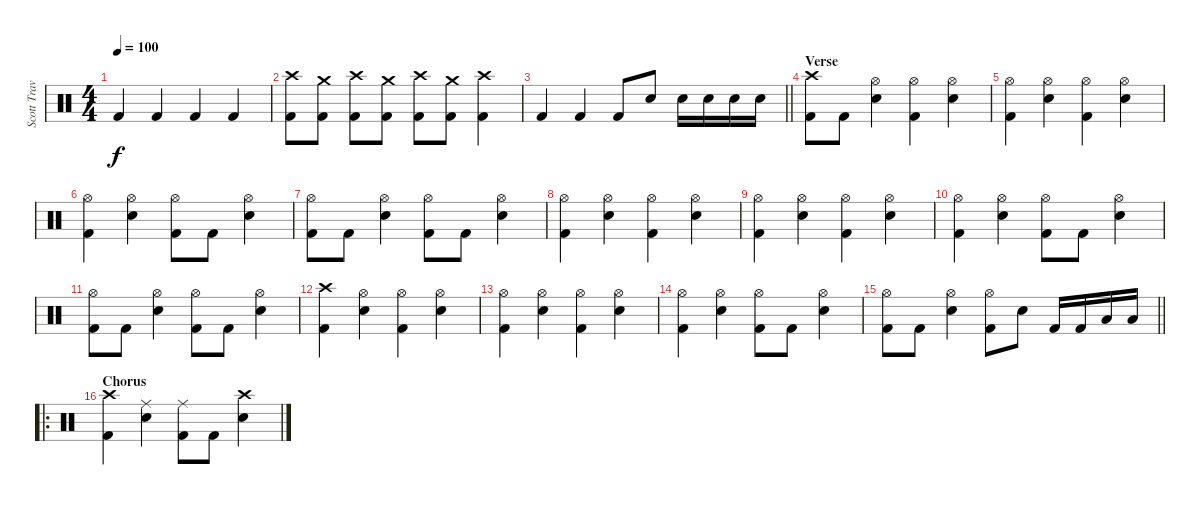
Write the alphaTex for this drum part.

\track ("Scott Travis" "Scott Trav") {instrument percussion}
\staff {score}
\articulation defaults
\ts (4 4)
\tempo 100
\clef neutral
\ks c "Kick (hit) 2".4{dy f} "Kick (hit) 2".4 "Kick (hit) 2".4 "Kick (hit) 2".4
|
("Crash high (hit)" "Kick (hit) 2").8 ("Crash medium (hit)" "Kick (hit) 2").8 ("Crash high (hit)" "Kick (hit) 2").8 ("Crash medium (hit)" "Kick (hit) 2").8 ("Crash high (hit)" "Kick (hit) 2").8 ("Crash medium (hit)" "Kick (hit) 2").8 ("Crash high (hit)" "Kick (hit) 2").4 |
\barLineRight lightlight "Kick (hit) 2".4 "Kick (hit) 2".4 "Kick (hit) 2".8 "Snare (hit) 2".8 "Snare (hit) 2".16 "Snare (hit) 2".16 "Snare (hit) 2".16 "Snare (hit) 2".16
|
\section ("" "Verse")
("Crash high (hit)" "Kick (hit) 2").8 "Kick (hit) 2".8 ("Hi-Hat (open)" "Snare (hit) 2").4 ("Hi-Hat (open)" "Kick (hit) 2").4 ("Hi-Hat (open)" "Snare (hit) 2").4 |
("Hi-Hat (open)" "Kick (hit) 2").4 ("Hi-Hat (open)" "Snare (hit) 2").4 ("Hi-Hat (open)" "Kick (hit) 2").4 ("Hi-Hat (open)" "Snare (hit) 2").4 |
("Hi-Hat (open)" "Kick (hit) 2").4 ("Hi-Hat (open)" "Snare (hit) 2").4 ("Hi-Hat (open)" "Kick (hit) 2").8 "Kick (hit) 2".8 ("Hi-Hat (open)" "Snare (hit) 2").4 |
("Hi-Hat (open)" "Kick (hit) 2").8 "Kick (hit) 2".8 ("Hi-Hat (open)" "Snare (hit) 2").4 ("Hi-Hat (open)" "Kick (hit) 2").8 "Kick (hit) 2".8 ("Hi-Hat (open)" "Snare (hit) 2").4 |
("Hi-Hat (open)" "Kick (hit) 2").4 ("Hi-Hat (open)" "Snare (hit) 2").4 ("Hi-Hat (open)" "Kick (hit) 2").4 ("Hi-Hat (open)" "Snare (hit) 2").4 |
("Hi-Hat (open)" "Kick (hit) 2").4 ("Hi-Hat (open)" "Snare (hit) 2").4 ("Hi-Hat (open)" "Kick (hit) 2").4 ("Hi-Hat (open)" "Snare (hit) 2").4 |
("Hi-Hat (open)" "Kick (hit) 2").4 ("Hi-Hat (open)" "Snare (hit) 2").4 ("Hi-Hat (open)" "Kick (hit) 2").8 "Kick (hit) 2".8 ("Hi-Hat (open)" "Snare (hit) 2").4 |
("Hi-Hat (open)" "Kick (hit) 2").8 "Kick (hit) 2".8 ("Hi-Hat (open)" "Snare (hit) 2").4 ("Hi-Hat (open)" "Kick (hit) 2").8 "Kick (hit) 2".8 ("Hi-Hat (open)" "Snare (hit) 2").4 |
("Crash high (hit)" "Kick (hit) 2").4 ("Hi-Hat (open)" "Snare (hit) 2").4 ("Hi-Hat (open)" "Kick (hit) 2").4 ("Hi-Hat (open)" "Snare (hit) 2").4 |
("Hi-Hat (open)" "Kick (hit) 2").4 ("Hi-Hat (open)" "Snare (hit) 2").4 ("Hi-Hat (open)" "Kick (hit) 2").4 ("Hi-Hat (open)" "Snare (hit) 2").4 |
("Hi-Hat (open)" "Kick (hit) 2").4 ("Hi-Hat (open)" "Snare (hit) 2").4 ("Hi-Hat (open)" "Kick (hit) 2").8 "Kick (hit) 2".8 ("Hi-Hat (open)" "Snare (hit) 2").4 |
\barLineRight lightlight
("Hi-Hat (open)" "Kick (hit) 2").8 "Kick (hit) 2".8 ("Hi-Hat (open)" "Snare (hit) 2").4 ("Hi-Hat (open)" "Kick (hit) 2").8 "Snare (hit) 2".8 "Kick (hit) 2".16 "Kick (hit) 2".16 "Low Floor Tom (hit)".16 "Low Floor Tom (hit)".16 |
\ro
\section ("" "Chorus")
("Crash high (hit)" "Kick (hit) 2").4 ("Ride (middle)" "Snare (hit) 2").4 ("Ride (middle)" "Kick (hit) 2").8 "Kick (hit) 2".8 ("Crash high (hit)" "Snare (hit) 2").4
